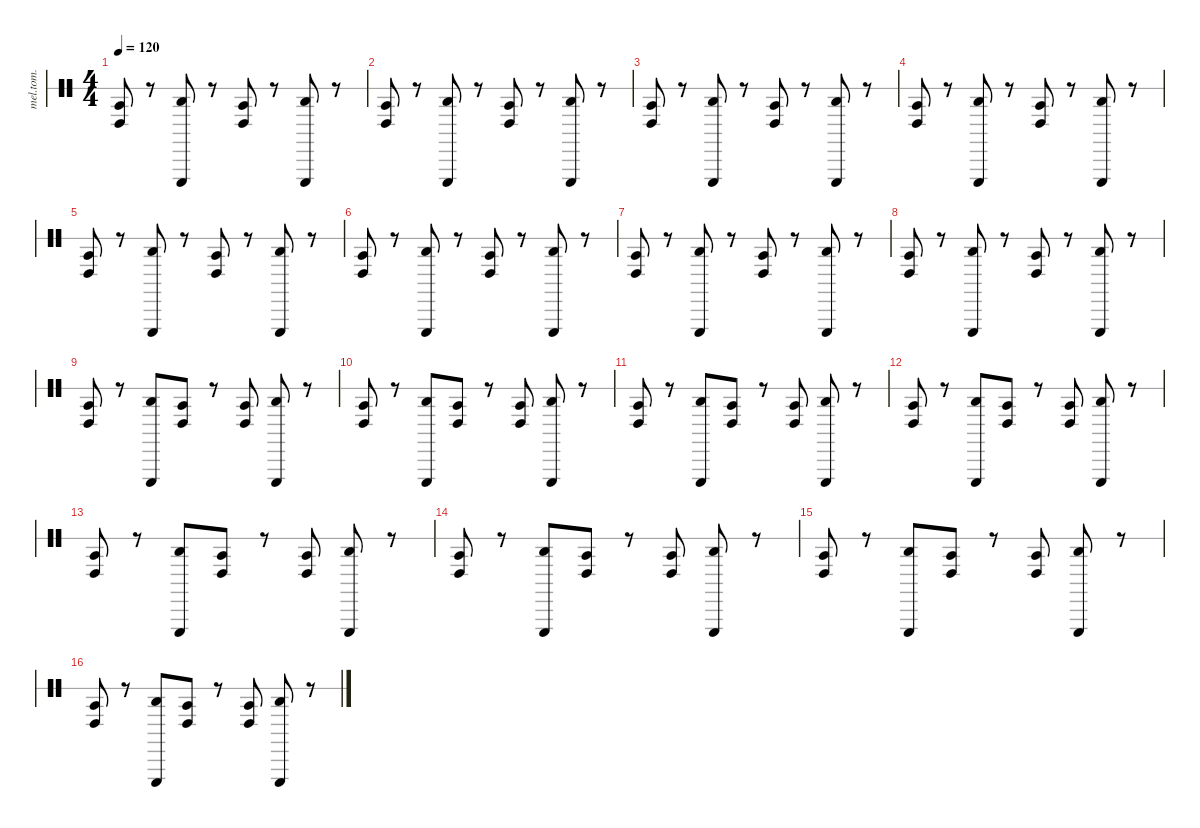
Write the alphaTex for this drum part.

\defaultSystemsLayout 4
\hideDynamics
\bracketExtendMode nobrackets
\otherSystemsTrackNameOrientation horizontal
\track ("Melodic Tom" "mel.tom.") {instrument percussion}
\staff {score 1}
\articulation defaults
\ts (4 4)
\tempo 120
\clef neutral
\ks c
("Kick (hit)" "Mid Tom (hit)").8{dy mf beam Up} r.8{beam Up} ("Castanets (hit)" "Electric Snare (hit)").8{beam Up} r.8{beam Up} ("Kick (hit)" "Mid Tom (hit)").8{beam Up} r.8{beam Up} ("Castanets (hit)" "Electric Snare (hit)").8{beam Up} r.8{beam Up} |
("Kick (hit)" "Mid Tom (hit)").8{beam Up} r.8{beam Up} ("Castanets (hit)" "Electric Snare (hit)").8{beam Up} r.8{beam Up} ("Kick (hit)" "Mid Tom (hit)").8{beam Up} r.8{beam Up} ("Castanets (hit)" "Electric Snare (hit)").8{beam Up} r.8{beam Up} |
("Kick (hit)" "Mid Tom (hit)").8{beam Up} r.8{beam Up} ("Castanets (hit)" "Electric Snare (hit)").8{beam Up} r.8{beam Up} ("Kick (hit)" "Mid Tom (hit)").8{beam Up} r.8{beam Up} ("Castanets (hit)" "Electric Snare (hit)").8{beam Up} r.8{beam Up} |
("Kick (hit)" "Mid Tom (hit)").8{beam Up} r.8{beam Up} ("Castanets (hit)" "Electric Snare (hit)").8{beam Up} r.8{beam Up} ("Kick (hit)" "Mid Tom (hit)").8{beam Up} r.8{beam Up} ("Castanets (hit)" "Electric Snare (hit)").8{beam Up} r.8{beam Up} |
("Kick (hit)" "Mid Tom (hit)").8{beam Up} r.8{beam Up} ("Castanets (hit)" "Electric Snare (hit)").8{beam Up} r.8{beam Up} ("Kick (hit)" "Mid Tom (hit)").8{beam Up} r.8{beam Up} ("Castanets (hit)" "Electric Snare (hit)").8{beam Up} r.8{beam Up} |
("Kick (hit)" "Mid Tom (hit)").8{beam Up} r.8{beam Up} ("Castanets (hit)" "Electric Snare (hit)").8{beam Up} r.8{beam Up} ("Kick (hit)" "Mid Tom (hit)").8{beam Up} r.8{beam Up} ("Castanets (hit)" "Electric Snare (hit)").8{beam Up} r.8{beam Up} |
("Kick (hit)" "Mid Tom (hit)").8{beam Up} r.8{beam Up} ("Castanets (hit)" "Electric Snare (hit)").8{beam Up} r.8{beam Up} ("Kick (hit)" "Mid Tom (hit)").8{beam Up} r.8{beam Up} ("Castanets (hit)" "Electric Snare (hit)").8{beam Up} r.8{beam Up} |
("Kick (hit)" "Mid Tom (hit)").8{beam Up} r.8{beam Up} ("Castanets (hit)" "Electric Snare (hit)").8{beam Up} r.8{beam Up} ("Kick (hit)" "Mid Tom (hit)").8{beam Up} r.8{beam Up} ("Castanets (hit)" "Electric Snare (hit)").8{beam Up} r.8{beam Up} |
("Kick (hit)" "Mid Tom (hit)").8{beam Up} r.8{beam Up} ("Castanets (hit)" "Electric Snare (hit)").8{beam Up} ("Kick (hit)" "Mid Tom (hit)").8{beam Up} r.8{beam Up} ("Kick (hit)" "Mid Tom (hit)").8{beam Up} ("Castanets (hit)" "Electric Snare (hit)").8{beam Up} r.8{beam Up} |
("Kick (hit)" "Mid Tom (hit)").8{beam Up} r.8{beam Up} ("Castanets (hit)" "Electric Snare (hit)").8{beam Up} ("Kick (hit)" "Mid Tom (hit)").8{beam Up} r.8{beam Up} ("Kick (hit)" "Mid Tom (hit)").8{beam Up} ("Castanets (hit)" "Electric Snare (hit)").8{beam Up} r.8{beam Up} |
("Kick (hit)" "Mid Tom (hit)").8{beam Up} r.8{beam Up} ("Castanets (hit)" "Electric Snare (hit)").8{beam Up} ("Kick (hit)" "Mid Tom (hit)").8{beam Up} r.8{beam Up} ("Kick (hit)" "Mid Tom (hit)").8{beam Up} ("Castanets (hit)" "Electric Snare (hit)").8{beam Up} r.8{beam Up} |
("Kick (hit)" "Mid Tom (hit)").8{beam Up} r.8{beam Up} ("Castanets (hit)" "Electric Snare (hit)").8{beam Up} ("Kick (hit)" "Mid Tom (hit)").8{beam Up} r.8{beam Up} ("Kick (hit)" "Mid Tom (hit)").8{beam Up} ("Castanets (hit)" "Electric Snare (hit)").8{beam Up} r.8{beam Up} |
("Kick (hit)" "Mid Tom (hit)").8{beam Up} r.8{beam Up} ("Castanets (hit)" "Electric Snare (hit)").8{beam Up} ("Kick (hit)" "Mid Tom (hit)").8{beam Up} r.8{beam Up} ("Kick (hit)" "Mid Tom (hit)").8{beam Up} ("Castanets (hit)" "Electric Snare (hit)").8{beam Up} r.8{beam Up} |
("Kick (hit)" "Mid Tom (hit)").8{beam Up} r.8{beam Up} ("Castanets (hit)" "Electric Snare (hit)").8{beam Up} ("Kick (hit)" "Mid Tom (hit)").8{beam Up} r.8{beam Up} ("Kick (hit)" "Mid Tom (hit)").8{beam Up} ("Castanets (hit)" "Electric Snare (hit)").8{beam Up} r.8{beam Up} |
("Kick (hit)" "Mid Tom (hit)").8{beam Up} r.8{beam Up} ("Castanets (hit)" "Electric Snare (hit)").8{beam Up} ("Kick (hit)" "Mid Tom (hit)").8{beam Up} r.8{beam Up} ("Kick (hit)" "Mid Tom (hit)").8{beam Up} ("Castanets (hit)" "Electric Snare (hit)").8{beam Up} r.8{beam Up} |
("Kick (hit)" "Mid Tom (hit)").8{beam Up} r.8{beam Up} ("Castanets (hit)" "Electric Snare (hit)").8{beam Up} ("Kick (hit)" "Mid Tom (hit)").8{beam Up} r.8{beam Up} ("Kick (hit)" "Mid Tom (hit)").8{beam Up} ("Castanets (hit)" "Electric Snare (hit)").8{beam Up} r.8{beam Up}
